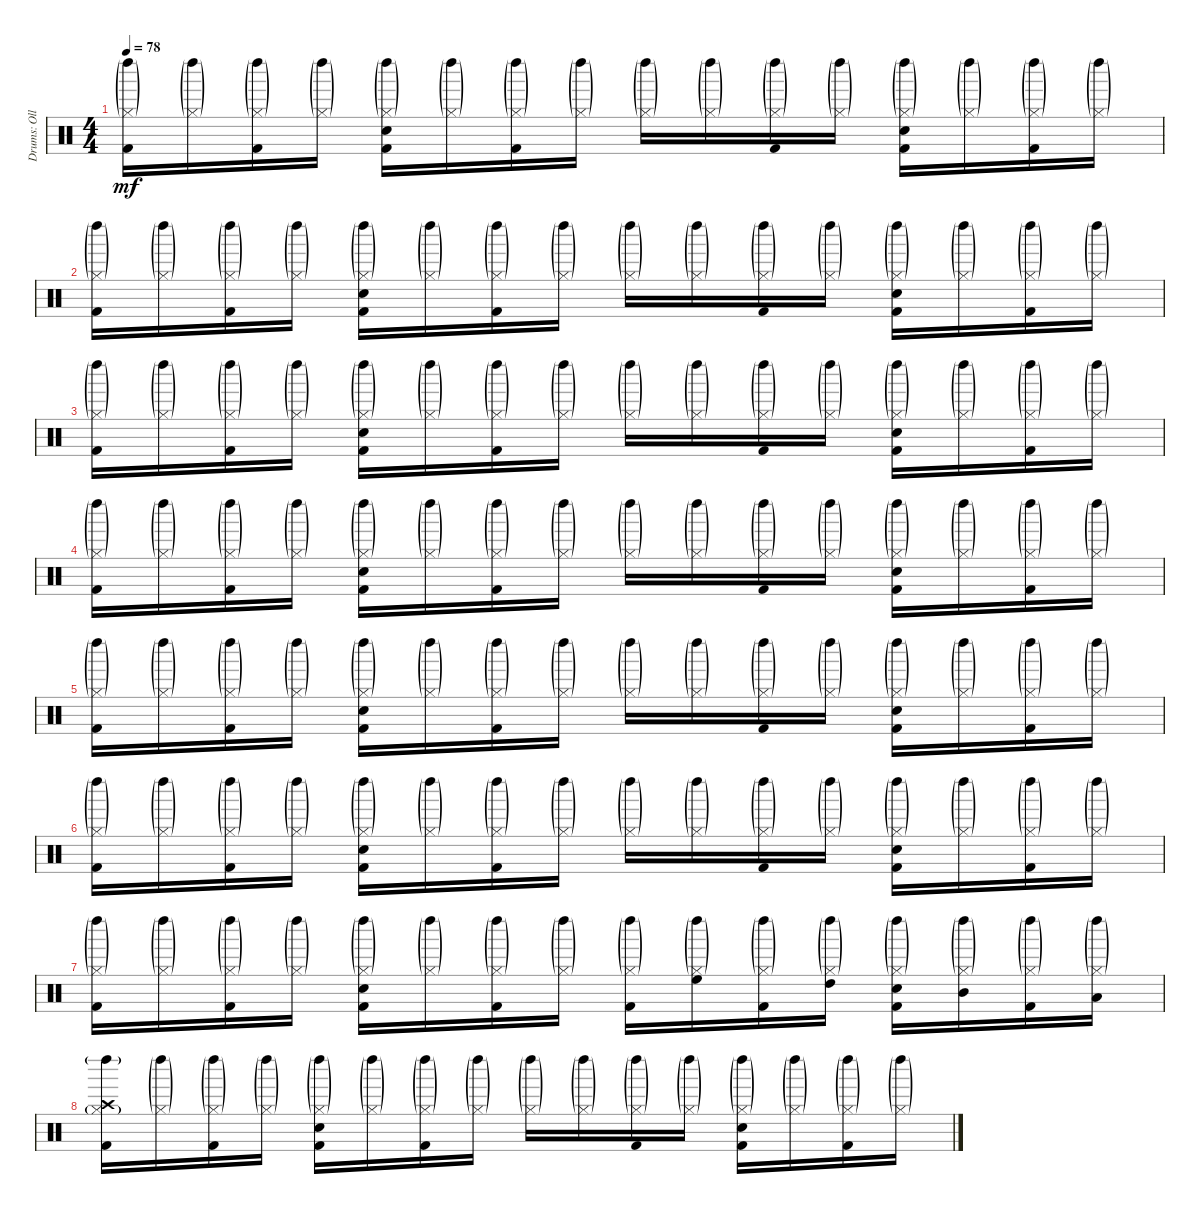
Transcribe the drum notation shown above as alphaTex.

\track ("Drums: Olle Romeo" "Drums: Oll") {instrument percussion}
\staff {score}
\articulation defaults
\ts (4 4)
\tempo 78
\clef neutral
\ks c
("Hi-Hat (closed)"{g} "Kick (hit) 2" "Left Maraca (hit)"{g}).16{dy mf} ("Hi-Hat (closed)"{g} "Left Maraca (hit)"{g}).16 ("Hi-Hat (closed)"{g} "Kick (hit) 2" "Left Maraca (hit)"{g}).16 ("Hi-Hat (closed)"{g} "Left Maraca (hit)"{g}).16 ("Hi-Hat (closed)"{g} "Snare (hit) 2" "Kick (hit) 2" "Left Maraca (hit)"{g}).16 ("Hi-Hat (closed)"{g} "Left Maraca (hit)"{g}).16 ("Hi-Hat (closed)"{g} "Kick (hit) 2" "Left Maraca (hit)"{g}).16 ("Hi-Hat (closed)"{g} "Left Maraca (hit)"{g}).16 ("Hi-Hat (closed)"{g} "Left Maraca (hit)"{g}).16 ("Hi-Hat (closed)"{g} "Left Maraca (hit)"{g}).16 ("Hi-Hat (closed)"{g} "Kick (hit) 2" "Left Maraca (hit)"{g}).16 ("Hi-Hat (closed)"{g} "Left Maraca (hit)"{g}).16 ("Hi-Hat (closed)"{g} "Snare (hit) 2" "Kick (hit) 2" "Left Maraca (hit)"{g}).16 ("Hi-Hat (closed)"{g} "Left Maraca (hit)"{g}).16 ("Hi-Hat (closed)"{g} "Kick (hit) 2" "Left Maraca (hit)"{g}).16 ("Hi-Hat (closed)"{g} "Left Maraca (hit)"{g}).16 |
("Hi-Hat (closed)"{g} "Kick (hit) 2" "Left Maraca (hit)"{g}).16 ("Hi-Hat (closed)"{g} "Left Maraca (hit)"{g}).16 ("Hi-Hat (closed)"{g} "Kick (hit) 2" "Left Maraca (hit)"{g}).16 ("Hi-Hat (closed)"{g} "Left Maraca (hit)"{g}).16 ("Hi-Hat (closed)"{g} "Snare (hit) 2" "Kick (hit) 2" "Left Maraca (hit)"{g}).16 ("Hi-Hat (closed)"{g} "Left Maraca (hit)"{g}).16 ("Hi-Hat (closed)"{g} "Kick (hit) 2" "Left Maraca (hit)"{g}).16 ("Hi-Hat (closed)"{g} "Left Maraca (hit)"{g}).16 ("Hi-Hat (closed)"{g} "Left Maraca (hit)"{g}).16 ("Hi-Hat (closed)"{g} "Left Maraca (hit)"{g}).16 ("Hi-Hat (closed)"{g} "Kick (hit) 2" "Left Maraca (hit)"{g}).16 ("Hi-Hat (closed)"{g} "Left Maraca (hit)"{g}).16 ("Hi-Hat (closed)"{g} "Snare (hit) 2" "Kick (hit) 2" "Left Maraca (hit)"{g}).16 ("Hi-Hat (closed)"{g} "Left Maraca (hit)"{g}).16 ("Hi-Hat (closed)"{g} "Kick (hit) 2" "Left Maraca (hit)"{g}).16 ("Hi-Hat (closed)"{g} "Left Maraca (hit)"{g}).16 |
("Hi-Hat (closed)"{g} "Kick (hit) 2" "Left Maraca (hit)"{g}).16 ("Hi-Hat (closed)"{g} "Left Maraca (hit)"{g}).16 ("Hi-Hat (closed)"{g} "Kick (hit) 2" "Left Maraca (hit)"{g}).16 ("Hi-Hat (closed)"{g} "Left Maraca (hit)"{g}).16 ("Hi-Hat (closed)"{g} "Snare (hit) 2" "Kick (hit) 2" "Left Maraca (hit)"{g}).16 ("Hi-Hat (closed)"{g} "Left Maraca (hit)"{g}).16 ("Hi-Hat (closed)"{g} "Kick (hit) 2" "Left Maraca (hit)"{g}).16 ("Hi-Hat (closed)"{g} "Left Maraca (hit)"{g}).16 ("Hi-Hat (closed)"{g} "Left Maraca (hit)"{g}).16 ("Hi-Hat (closed)"{g} "Left Maraca (hit)"{g}).16 ("Hi-Hat (closed)"{g} "Kick (hit) 2" "Left Maraca (hit)"{g}).16 ("Hi-Hat (closed)"{g} "Left Maraca (hit)"{g}).16 ("Hi-Hat (closed)"{g} "Snare (hit) 2" "Kick (hit) 2" "Left Maraca (hit)"{g}).16 ("Hi-Hat (closed)"{g} "Left Maraca (hit)"{g}).16 ("Hi-Hat (closed)"{g} "Kick (hit) 2" "Left Maraca (hit)"{g}).16 ("Hi-Hat (closed)"{g} "Left Maraca (hit)"{g}).16 |
("Hi-Hat (closed)"{g} "Kick (hit) 2" "Left Maraca (hit)"{g}).16 ("Hi-Hat (closed)"{g} "Left Maraca (hit)"{g}).16 ("Hi-Hat (closed)"{g} "Kick (hit) 2" "Left Maraca (hit)"{g}).16 ("Hi-Hat (closed)"{g} "Left Maraca (hit)"{g}).16 ("Hi-Hat (closed)"{g} "Snare (hit) 2" "Kick (hit) 2" "Left Maraca (hit)"{g}).16 ("Hi-Hat (closed)"{g} "Left Maraca (hit)"{g}).16 ("Hi-Hat (closed)"{g} "Kick (hit) 2" "Left Maraca (hit)"{g}).16 ("Hi-Hat (closed)"{g} "Left Maraca (hit)"{g}).16 ("Hi-Hat (closed)"{g} "Left Maraca (hit)"{g}).16 ("Hi-Hat (closed)"{g} "Left Maraca (hit)"{g}).16 ("Hi-Hat (closed)"{g} "Kick (hit) 2" "Left Maraca (hit)"{g}).16 ("Hi-Hat (closed)"{g} "Left Maraca (hit)"{g}).16 ("Hi-Hat (closed)"{g} "Snare (hit) 2" "Kick (hit) 2" "Left Maraca (hit)"{g}).16 ("Hi-Hat (closed)"{g} "Left Maraca (hit)"{g}).16 ("Hi-Hat (closed)"{g} "Kick (hit) 2" "Left Maraca (hit)"{g}).16 ("Hi-Hat (closed)"{g} "Left Maraca (hit)"{g}).16 |
("Hi-Hat (closed)"{g} "Kick (hit) 2" "Left Maraca (hit)"{g}).16 ("Hi-Hat (closed)"{g} "Left Maraca (hit)"{g}).16 ("Hi-Hat (closed)"{g} "Kick (hit) 2" "Left Maraca (hit)"{g}).16 ("Hi-Hat (closed)"{g} "Left Maraca (hit)"{g}).16 ("Hi-Hat (closed)"{g} "Snare (hit) 2" "Kick (hit) 2" "Left Maraca (hit)"{g}).16 ("Hi-Hat (closed)"{g} "Left Maraca (hit)"{g}).16 ("Hi-Hat (closed)"{g} "Kick (hit) 2" "Left Maraca (hit)"{g}).16 ("Hi-Hat (closed)"{g} "Left Maraca (hit)"{g}).16 ("Hi-Hat (closed)"{g} "Left Maraca (hit)"{g}).16 ("Hi-Hat (closed)"{g} "Left Maraca (hit)"{g}).16 ("Hi-Hat (closed)"{g} "Kick (hit) 2" "Left Maraca (hit)"{g}).16 ("Hi-Hat (closed)"{g} "Left Maraca (hit)"{g}).16 ("Hi-Hat (closed)"{g} "Snare (hit) 2" "Kick (hit) 2" "Left Maraca (hit)"{g}).16 ("Hi-Hat (closed)"{g} "Left Maraca (hit)"{g}).16 ("Hi-Hat (closed)"{g} "Kick (hit) 2" "Left Maraca (hit)"{g}).16 ("Hi-Hat (closed)"{g} "Left Maraca (hit)"{g}).16 |
("Hi-Hat (closed)"{g} "Kick (hit) 2" "Left Maraca (hit)"{g}).16 ("Hi-Hat (closed)"{g} "Left Maraca (hit)"{g}).16 ("Hi-Hat (closed)"{g} "Kick (hit) 2" "Left Maraca (hit)"{g}).16 ("Hi-Hat (closed)"{g} "Left Maraca (hit)"{g}).16 ("Hi-Hat (closed)"{g} "Snare (hit) 2" "Kick (hit) 2" "Left Maraca (hit)"{g}).16 ("Hi-Hat (closed)"{g} "Left Maraca (hit)"{g}).16 ("Hi-Hat (closed)"{g} "Kick (hit) 2" "Left Maraca (hit)"{g}).16 ("Hi-Hat (closed)"{g} "Left Maraca (hit)"{g}).16 ("Hi-Hat (closed)"{g} "Left Maraca (hit)"{g}).16 ("Hi-Hat (closed)"{g} "Left Maraca (hit)"{g}).16 ("Hi-Hat (closed)"{g} "Kick (hit) 2" "Left Maraca (hit)"{g}).16 ("Hi-Hat (closed)"{g} "Left Maraca (hit)"{g}).16 ("Hi-Hat (closed)"{g} "Snare (hit) 2" "Kick (hit) 2" "Left Maraca (hit)"{g}).16 ("Hi-Hat (closed)"{g} "Left Maraca (hit)"{g}).16 ("Hi-Hat (closed)"{g} "Kick (hit) 2" "Left Maraca (hit)"{g}).16 ("Hi-Hat (closed)"{g} "Left Maraca (hit)"{g}).16 |
("Hi-Hat (closed)"{g} "Kick (hit) 2" "Left Maraca (hit)"{g}).16 ("Hi-Hat (closed)"{g} "Left Maraca (hit)"{g}).16 ("Hi-Hat (closed)"{g} "Kick (hit) 2" "Left Maraca (hit)"{g}).16 ("Hi-Hat (closed)"{g} "Left Maraca (hit)"{g}).16 ("Hi-Hat (closed)"{g} "Snare (hit) 2" "Kick (hit) 2" "Left Maraca (hit)"{g}).16 ("Hi-Hat (closed)"{g} "Left Maraca (hit)"{g}).16 ("Hi-Hat (closed)"{g} "Kick (hit) 2" "Left Maraca (hit)"{g}).16 ("Hi-Hat (closed)"{g} "Left Maraca (hit)"{g}).16 ("Hi-Hat (closed)"{g} "Kick (hit) 2" "Left Maraca (hit)"{g}).16 ("Hi-Hat (closed)"{g} "High Floor Tom (hit)" "Left Maraca (hit)"{g}).16 ("Hi-Hat (closed)"{g} "Kick (hit) 2" "Left Maraca (hit)"{g}).16 ("Hi-Hat (closed)"{g} "High Tom (hit)" "Left Maraca (hit)"{g}).16 ("Hi-Hat (closed)"{g} "Snare (hit) 2" "Kick (hit) 2" "Left Maraca (hit)"{g}).16 ("Hi-Hat (closed)"{g} "Mid Tom (hit)" "Left Maraca (hit)"{g}).16 ("Hi-Hat (closed)"{g} "Kick (hit) 2" "Left Maraca (hit)"{g}).16 ("Hi-Hat (closed)"{g} "Low Tom (hit)" "Left Maraca (hit)"{g}).16 |
("Crash high (hit)" "Hi-Hat (closed)"{g} "Kick (hit) 2" "Left Maraca (hit)"{g}).16 ("Hi-Hat (closed)"{g} "Left Maraca (hit)"{g}).16 ("Hi-Hat (closed)"{g} "Kick (hit) 2" "Left Maraca (hit)"{g}).16 ("Hi-Hat (closed)"{g} "Left Maraca (hit)"{g}).16 ("Hi-Hat (closed)"{g} "Snare (hit) 2" "Kick (hit) 2" "Left Maraca (hit)"{g}).16 ("Hi-Hat (closed)"{g} "Left Maraca (hit)"{g}).16 ("Hi-Hat (closed)"{g} "Kick (hit) 2" "Left Maraca (hit)"{g}).16 ("Hi-Hat (closed)"{g} "Left Maraca (hit)"{g}).16 ("Hi-Hat (closed)"{g} "Left Maraca (hit)"{g}).16 ("Hi-Hat (closed)"{g} "Left Maraca (hit)"{g}).16 ("Hi-Hat (closed)"{g} "Kick (hit) 2" "Left Maraca (hit)"{g}).16 ("Hi-Hat (closed)"{g} "Left Maraca (hit)"{g}).16 ("Hi-Hat (closed)"{g} "Snare (hit) 2" "Kick (hit) 2" "Left Maraca (hit)"{g}).16 ("Hi-Hat (closed)"{g} "Left Maraca (hit)"{g}).16 ("Hi-Hat (closed)"{g} "Kick (hit) 2" "Left Maraca (hit)"{g}).16 ("Hi-Hat (closed)"{g} "Left Maraca (hit)"{g}).16
